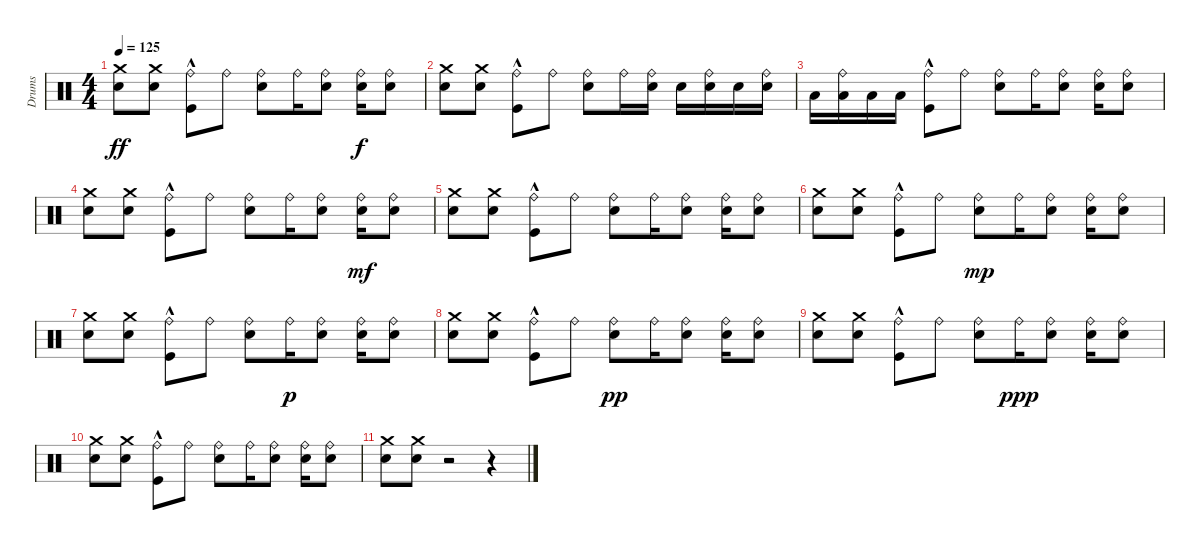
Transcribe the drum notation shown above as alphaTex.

\track ("Drums" "Drums") {instrument percussion}
\staff {score}
\articulation defaults
\ts (4 4)
\tempo 125
\clef neutral
\ks c
("Electric Snare (hit)" "Crash medium (hit)").8{dy ff} ("Electric Snare (hit)" "Crash medium (hit)").8 ("Kick (hit)"{hac} "Ride (bell)").8 "Ride (bell)".8 ("Electric Snare (hit)" "Ride (bell)").8 "Ride (bell)".16 ("Electric Snare (hit)" "Ride (bell)").8 ("Electric Snare (hit)" "Ride (bell)").16{dy f} ("Electric Snare (hit)" "Ride (bell)").8 |
("Electric Snare (hit)" "Crash medium (hit)").8 ("Electric Snare (hit)" "Crash medium (hit)").8 ("Kick (hit)"{hac} "Ride (bell)").8 "Ride (bell)".8 ("Electric Snare (hit)" "Ride (bell)").8 "Ride (bell)".16 ("Electric Snare (hit)" "Ride (bell)").16 "Electric Snare (hit)".16 ("Electric Snare (hit)" "Ride (bell)").16 "Electric Snare (hit)".16 ("Electric Snare (hit)" "Ride (bell)").16 |
"Low Floor Tom (hit)".16 ("Low Floor Tom (hit)" "Ride (bell)").16 "Low Floor Tom (hit)".16 "Low Floor Tom (hit)".16 ("Kick (hit)"{hac} "Ride (bell)").8 "Ride (bell)".8 ("Electric Snare (hit)" "Ride (bell)").8 "Ride (bell)".16 ("Electric Snare (hit)" "Ride (bell)").8 ("Electric Snare (hit)" "Ride (bell)").16 ("Electric Snare (hit)" "Ride (bell)").8 |
("Electric Snare (hit)" "Crash medium (hit)").8 ("Electric Snare (hit)" "Crash medium (hit)").8 ("Kick (hit)"{hac} "Ride (bell)").8 "Ride (bell)".8 ("Electric Snare (hit)" "Ride (bell)").8 "Ride (bell)".16 ("Electric Snare (hit)" "Ride (bell)").8 ("Electric Snare (hit)" "Ride (bell)").16{dy mf} ("Electric Snare (hit)" "Ride (bell)").8 |
("Electric Snare (hit)" "Crash medium (hit)").8 ("Electric Snare (hit)" "Crash medium (hit)").8 ("Kick (hit)"{hac} "Ride (bell)").8 "Ride (bell)".8 ("Electric Snare (hit)" "Ride (bell)").8 "Ride (bell)".16 ("Electric Snare (hit)" "Ride (bell)").8 ("Electric Snare (hit)" "Ride (bell)").16 ("Electric Snare (hit)" "Ride (bell)").8 |
("Electric Snare (hit)" "Crash medium (hit)").8 ("Electric Snare (hit)" "Crash medium (hit)").8 ("Kick (hit)"{hac} "Ride (bell)").8 "Ride (bell)".8 ("Electric Snare (hit)" "Ride (bell)").8{dy mp} "Ride (bell)".16 ("Electric Snare (hit)" "Ride (bell)").8 ("Electric Snare (hit)" "Ride (bell)").16 ("Electric Snare (hit)" "Ride (bell)").8 |
("Electric Snare (hit)" "Crash medium (hit)").8 ("Electric Snare (hit)" "Crash medium (hit)").8 ("Kick (hit)"{hac} "Ride (bell)").8 "Ride (bell)".8 ("Electric Snare (hit)" "Ride (bell)").8 "Ride (bell)".16{dy p} ("Electric Snare (hit)" "Ride (bell)").8 ("Electric Snare (hit)" "Ride (bell)").16 ("Electric Snare (hit)" "Ride (bell)").8 |
("Electric Snare (hit)" "Crash medium (hit)").8 ("Electric Snare (hit)" "Crash medium (hit)").8 ("Kick (hit)"{hac} "Ride (bell)").8 "Ride (bell)".8 ("Electric Snare (hit)" "Ride (bell)").8{dy pp} "Ride (bell)".16 ("Electric Snare (hit)" "Ride (bell)").8 ("Electric Snare (hit)" "Ride (bell)").16 ("Electric Snare (hit)" "Ride (bell)").8 |
("Electric Snare (hit)" "Crash medium (hit)").8 ("Electric Snare (hit)" "Crash medium (hit)").8 ("Kick (hit)"{hac} "Ride (bell)").8 "Ride (bell)".8 ("Electric Snare (hit)" "Ride (bell)").8 "Ride (bell)".16{dy ppp} ("Electric Snare (hit)" "Ride (bell)").8 ("Electric Snare (hit)" "Ride (bell)").16 ("Electric Snare (hit)" "Ride (bell)").8 |
("Electric Snare (hit)" "Crash medium (hit)").8 ("Electric Snare (hit)" "Crash medium (hit)").8 ("Kick (hit)"{hac} "Ride (bell)").8 "Ride (bell)".8 ("Electric Snare (hit)" "Ride (bell)").8 "Ride (bell)".16 ("Electric Snare (hit)" "Ride (bell)").8 ("Electric Snare (hit)" "Ride (bell)").16 ("Electric Snare (hit)" "Ride (bell)").8 |
("Electric Snare (hit)" "Crash medium (hit)").8 ("Electric Snare (hit)" "Crash medium (hit)").8 r.2 r.4
